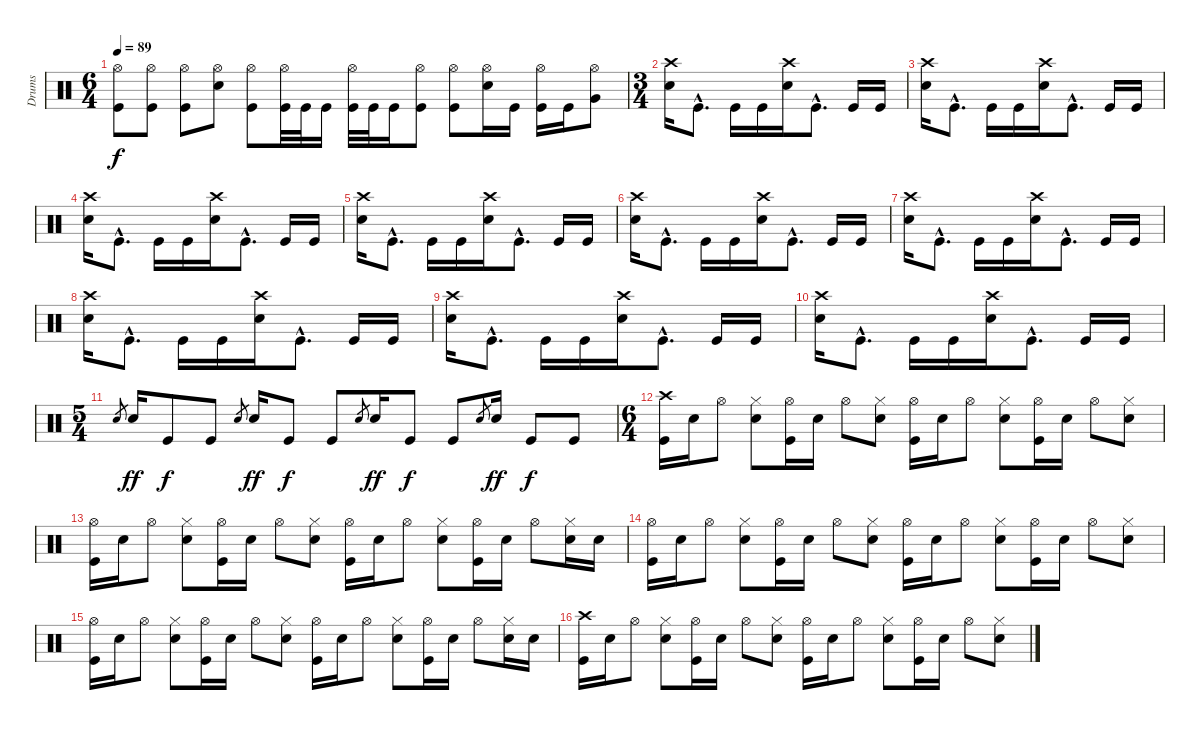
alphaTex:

\track ("Drums" "Drums") {instrument percussion}
\staff {score}
\articulation defaults
\ts (6 4)
\tempo 89
\clef neutral
\ks c
("Hi-Hat (open)" "Kick (hit)").8{dy f} ("Hi-Hat (open)" "Kick (hit)").8 ("Hi-Hat (open)" "Kick (hit)").8 ("Hi-Hat (open)" "Snare (hit) 2").8 ("Hi-Hat (open)" "Kick (hit)").8 ("Hi-Hat (open)" "Kick (hit)").32 "Kick (hit)".32 "Kick (hit)".16 ("Hi-Hat (open)" "Kick (hit)").32 "Kick (hit)".32 "Kick (hit)".16 ("Hi-Hat (open)" "Kick (hit)").8 ("Hi-Hat (open)" "Kick (hit)").8 ("Hi-Hat (open)" "Snare (hit) 2").16 "Kick (hit)".16 ("Hi-Hat (open)" "Kick (hit)").16 "Kick (hit)".16 ("Very Low Tom (hit)" "Hi-Hat (open)").8 |
\ts (3 4)
("Crash high (hit)" "Snare (hit) 2").16 "Kick (hit)"{hac}.8{d} "Kick (hit)".16 "Kick (hit)".16 ("Crash high (hit)" "Snare (hit) 2").16 "Kick (hit)"{hac}.8{d} "Kick (hit)".16 "Kick (hit)".16 |
("Crash high (hit)" "Snare (hit) 2").16 "Kick (hit)"{hac}.8{d} "Kick (hit)".16 "Kick (hit)".16 ("Crash high (hit)" "Snare (hit) 2").16 "Kick (hit)"{hac}.8{d} "Kick (hit)".16 "Kick (hit)".16 |
("Crash high (hit)" "Snare (hit) 2").16 "Kick (hit)"{hac}.8{d} "Kick (hit)".16 "Kick (hit)".16 ("Crash high (hit)" "Snare (hit) 2").16 "Kick (hit)"{hac}.8{d} "Kick (hit)".16 "Kick (hit)".16 |
("Crash high (hit)" "Snare (hit) 2").16 "Kick (hit)"{hac}.8{d} "Kick (hit)".16 "Kick (hit)".16 ("Crash high (hit)" "Snare (hit) 2").16 "Kick (hit)"{hac}.8{d} "Kick (hit)".16 "Kick (hit)".16 |
("Crash high (hit)" "Snare (hit) 2").16 "Kick (hit)"{hac}.8{d} "Kick (hit)".16 "Kick (hit)".16 ("Crash high (hit)" "Snare (hit) 2").16 "Kick (hit)"{hac}.8{d} "Kick (hit)".16 "Kick (hit)".16 |
("Crash high (hit)" "Snare (hit) 2").16 "Kick (hit)"{hac}.8{d} "Kick (hit)".16 "Kick (hit)".16 ("Crash high (hit)" "Snare (hit) 2").16 "Kick (hit)"{hac}.8{d} "Kick (hit)".16 "Kick (hit)".16 |
("Crash high (hit)" "Snare (hit) 2").16 "Kick (hit)"{hac}.8{d} "Kick (hit)".16 "Kick (hit)".16 ("Crash high (hit)" "Snare (hit) 2").16 "Kick (hit)"{hac}.8{d} "Kick (hit)".16 "Kick (hit)".16 |
("Crash high (hit)" "Snare (hit) 2").16 "Kick (hit)"{hac}.8{d} "Kick (hit)".16 "Kick (hit)".16 ("Crash high (hit)" "Snare (hit) 2").16 "Kick (hit)"{hac}.8{d} "Kick (hit)".16 "Kick (hit)".16 |
("Crash high (hit)" "Snare (hit) 2").16 "Kick (hit)"{hac}.8{d} "Kick (hit)".16 "Kick (hit)".16 ("Crash high (hit)" "Snare (hit) 2").16 "Kick (hit)"{hac}.8{d} "Kick (hit)".16 "Kick (hit)".16 |
\ts (5 4)
"Snare (hit) 2".8{gr} "Snare (hit) 2".16{dy ff} "Kick (hit)".8{dy f} "Kick (hit)".8 "Snare (hit) 2".8{gr} "Snare (hit) 2".16{dy ff} "Kick (hit)".8{dy f} "Kick (hit)".8 "Snare (hit) 2".8{gr} "Snare (hit) 2".16{dy ff} "Kick (hit)".8{dy f} "Kick (hit)".8 "Snare (hit) 2".8{gr} "Snare (hit) 2".16{dy ff} "Kick (hit)".8{dy f} "Kick (hit)".8 |
\ts (6 4)
("Crash high (hit)" "Kick (hit)").16 "Snare (hit) 2".16 "Hi-Hat (open)".8 ("Hi-Hat (closed)" "Snare (hit) 2").8 ("Hi-Hat (open)" "Kick (hit)").16 "Snare (hit) 2".16 "Hi-Hat (open)".8 ("Hi-Hat (closed)" "Snare (hit) 2").8 ("Hi-Hat (open)" "Kick (hit)").16 "Snare (hit) 2".16 "Hi-Hat (open)".8 ("Hi-Hat (closed)" "Snare (hit) 2").8 ("Hi-Hat (open)" "Kick (hit)").16 "Snare (hit) 2".16 "Hi-Hat (open)".8 ("Hi-Hat (closed)" "Snare (hit) 2").8 |
("Hi-Hat (open)" "Kick (hit)").16 "Snare (hit) 2".16 "Hi-Hat (open)".8 ("Hi-Hat (closed)" "Snare (hit) 2").8 ("Hi-Hat (open)" "Kick (hit)").16 "Snare (hit) 2".16 "Hi-Hat (open)".8 ("Hi-Hat (closed)" "Snare (hit) 2").8 ("Hi-Hat (open)" "Kick (hit)").16 "Snare (hit) 2".16 "Hi-Hat (open)".8 ("Hi-Hat (closed)" "Snare (hit) 2").8 ("Hi-Hat (open)" "Kick (hit)").16 "Snare (hit) 2".16 "Hi-Hat (open)".8 ("Hi-Hat (closed)" "Snare (hit) 2").16 "Snare (hit) 2".16 |
("Hi-Hat (open)" "Kick (hit)").16 "Snare (hit) 2".16 "Hi-Hat (open)".8 ("Hi-Hat (closed)" "Snare (hit) 2").8 ("Hi-Hat (open)" "Kick (hit)").16 "Snare (hit) 2".16 "Hi-Hat (open)".8 ("Hi-Hat (closed)" "Snare (hit) 2").8 ("Hi-Hat (open)" "Kick (hit)").16 "Snare (hit) 2".16 "Hi-Hat (open)".8 ("Hi-Hat (closed)" "Snare (hit) 2").8 ("Hi-Hat (open)" "Kick (hit)").16 "Snare (hit) 2".16 "Hi-Hat (open)".8 ("Hi-Hat (closed)" "Snare (hit) 2").8 |
("Hi-Hat (open)" "Kick (hit)").16 "Snare (hit) 2".16 "Hi-Hat (open)".8 ("Hi-Hat (closed)" "Snare (hit) 2").8 ("Hi-Hat (open)" "Kick (hit)").16 "Snare (hit) 2".16 "Hi-Hat (open)".8 ("Hi-Hat (closed)" "Snare (hit) 2").8 ("Hi-Hat (open)" "Kick (hit)").16 "Snare (hit) 2".16 "Hi-Hat (open)".8 ("Hi-Hat (closed)" "Snare (hit) 2").8 ("Hi-Hat (open)" "Kick (hit)").16 "Snare (hit) 2".16 "Hi-Hat (open)".8 ("Hi-Hat (closed)" "Snare (hit) 2").16 "Snare (hit) 2".16 |
("Crash high (hit)" "Kick (hit)").16 "Snare (hit) 2".16 "Hi-Hat (open)".8 ("Hi-Hat (closed)" "Snare (hit) 2").8 ("Hi-Hat (open)" "Kick (hit)").16 "Snare (hit) 2".16 "Hi-Hat (open)".8 ("Hi-Hat (closed)" "Snare (hit) 2").8 ("Hi-Hat (open)" "Kick (hit)").16 "Snare (hit) 2".16 "Hi-Hat (open)".8 ("Hi-Hat (closed)" "Snare (hit) 2").8 ("Hi-Hat (open)" "Kick (hit)").16 "Snare (hit) 2".16 "Hi-Hat (open)".8 ("Hi-Hat (closed)" "Snare (hit) 2").8
